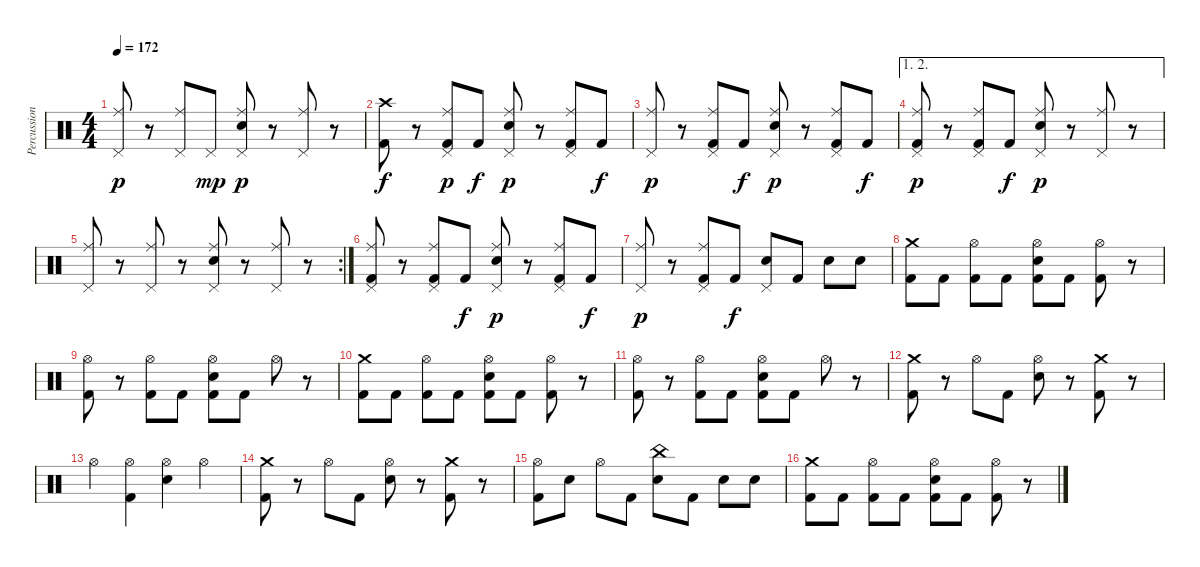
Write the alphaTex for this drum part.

\track ("Percussions" "Percussion") {instrument percussion}
\staff {score}
\articulation defaults
\ts (4 4)
\tempo 172
\clef neutral
\ks c
("Pedal Hi-Hat (hit)" "Ride (middle)").8{dy p} r.8 ("Pedal Hi-Hat (hit)" "Ride (middle)").8 "Pedal Hi-Hat (hit)".8{dy mp} ("Pedal Hi-Hat (hit)" "Ride (middle)" "Snare (hit) 2").8{dy p} r.8 ("Pedal Hi-Hat (hit)" "Ride (middle)").8 r.8 |
("Crash high (hit)" "Kick (hit) 2").8{dy f} r.8 ("Pedal Hi-Hat (hit)" "Ride (middle)" "Kick (hit) 2").8{dy p} "Kick (hit) 2".8{dy f} ("Pedal Hi-Hat (hit)" "Ride (middle)" "Snare (hit) 2").8{dy p} r.8 ("Pedal Hi-Hat (hit)" "Ride (middle)" "Kick (hit) 2").8 "Kick (hit) 2".8{dy f} |
("Pedal Hi-Hat (hit)" "Ride (middle)").8{dy p} r.8 ("Pedal Hi-Hat (hit)" "Ride (middle)" "Kick (hit) 2").8 "Kick (hit) 2".8{dy f} ("Pedal Hi-Hat (hit)" "Ride (middle)" "Snare (hit) 2").8{dy p} r.8 ("Pedal Hi-Hat (hit)" "Ride (middle)" "Kick (hit) 2").8 "Kick (hit) 2".8{dy f} |
\ae (1 2)
("Pedal Hi-Hat (hit)" "Ride (middle)" "Kick (hit) 2").8{dy p} r.8 ("Pedal Hi-Hat (hit)" "Ride (middle)" "Kick (hit) 2").8 "Kick (hit) 2".8{dy f} ("Pedal Hi-Hat (hit)" "Ride (middle)" "Snare (hit) 2").8{dy p} r.8 ("Pedal Hi-Hat (hit)" "Ride (middle)").8 r.8 |
\rc 2
("Pedal Hi-Hat (hit)" "Ride (middle)").8 r.8 ("Pedal Hi-Hat (hit)" "Ride (middle)").8 r.8 ("Pedal Hi-Hat (hit)" "Ride (middle)" "Snare (hit) 2").8 r.8 ("Pedal Hi-Hat (hit)" "Ride (middle)").8 r.8 |
("Pedal Hi-Hat (hit)" "Ride (middle)" "Kick (hit) 2").8 r.8 ("Pedal Hi-Hat (hit)" "Ride (middle)" "Kick (hit) 2").8 "Kick (hit) 2".8{dy f} ("Pedal Hi-Hat (hit)" "Ride (middle)" "Snare (hit) 2").8{dy p} r.8 ("Pedal Hi-Hat (hit)" "Ride (middle)" "Kick (hit) 2").8 "Kick (hit) 2".8{dy f} |
("Pedal Hi-Hat (hit)" "Ride (middle)").8{dy p} r.8 ("Pedal Hi-Hat (hit)" "Ride (middle)" "Kick (hit) 2").8 "Kick (hit) 2".8{dy f} ("Pedal Hi-Hat (hit)" "Snare (hit) 2").8 "Kick (hit) 2".8 "Snare (hit) 2".8 "Snare (hit) 2".8 |
("Crash medium (hit)" "Kick (hit) 2").8 "Kick (hit) 2".8 ("Hi-Hat (open)" "Kick (hit) 2").8 "Kick (hit) 2".8 ("Hi-Hat (open)" "Snare (hit) 2" "Kick (hit) 2").8 "Kick (hit) 2".8 ("Hi-Hat (open)" "Kick (hit) 2").8 r.8 |
("Hi-Hat (open)" "Kick (hit) 2").8 r.8 ("Hi-Hat (open)" "Kick (hit) 2").8 "Kick (hit) 2".8 ("Hi-Hat (open)" "Snare (hit) 2" "Kick (hit) 2").8 "Kick (hit) 2".8 "Hi-Hat (open)".8 r.8 |
("Crash medium (hit)" "Kick (hit) 2").8 "Kick (hit) 2".8 ("Hi-Hat (open)" "Kick (hit) 2").8 "Kick (hit) 2".8 ("Hi-Hat (open)" "Snare (hit) 2" "Kick (hit) 2").8 "Kick (hit) 2".8 ("Hi-Hat (open)" "Kick (hit) 2").8 r.8 |
("Hi-Hat (open)" "Kick (hit) 2").8 r.8 ("Hi-Hat (open)" "Kick (hit) 2").8 "Kick (hit) 2".8 ("Hi-Hat (open)" "Snare (hit) 2" "Kick (hit) 2").8 "Kick (hit) 2".8 "Hi-Hat (open)".8 r.8 |
("Crash medium (hit)" "Kick (hit) 2").8 r.8 "Hi-Hat (open)".8 "Kick (hit) 2".8 ("Hi-Hat (open)" "Snare (hit) 2").8 r.8 ("Crash medium (hit)" "Kick (hit) 2").8 r.8 |
"Hi-Hat (open)".4 ("Hi-Hat (open)" "Kick (hit) 2").4 ("Hi-Hat (open)" "Snare (hit) 2").4 "Hi-Hat (open)".4 |
("Crash medium (hit)" "Kick (hit) 2").8 r.8 "Hi-Hat (open)".8 "Kick (hit) 2".8 ("Hi-Hat (open)" "Snare (hit) 2").8 r.8 ("Crash medium (hit)" "Kick (hit) 2").8 r.8 |
("Hi-Hat (open)" "Kick (hit) 2").8 "Snare (hit) 2".8 "Hi-Hat (open)".8 "Kick (hit) 2".8 ("China (hit)" "Snare (hit) 2").8 "Kick (hit) 2".8 "Snare (hit) 2".8 "Snare (hit) 2".8 |
("Crash medium (hit)" "Kick (hit) 2").8 "Kick (hit) 2".8 ("Hi-Hat (open)" "Kick (hit) 2").8 "Kick (hit) 2".8 ("Hi-Hat (open)" "Snare (hit) 2" "Kick (hit) 2").8 "Kick (hit) 2".8 ("Hi-Hat (open)" "Kick (hit) 2").8 r.8
